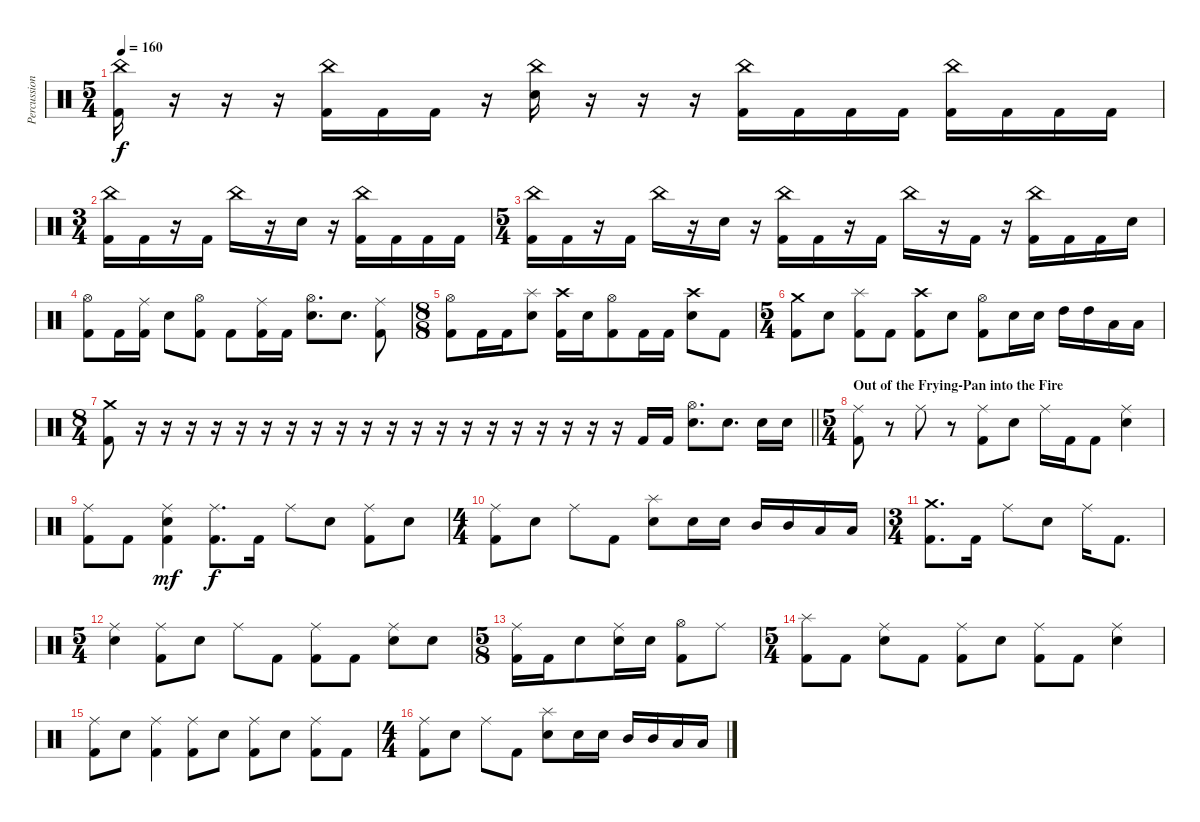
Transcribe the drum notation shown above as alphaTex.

\track ("Percussion" "Percussion") {instrument percussion}
\staff {score}
\articulation defaults
\ts (5 4)
\tempo 160
\clef neutral
\ks c
("China (hit)" "Kick (hit) 2").16{dy f} r.16 r.16 r.16 ("China (hit)" "Kick (hit) 2").16 "Kick (hit) 2".16 "Kick (hit) 2".16 r.16 ("China (hit)" "Electric Snare (hit)").16 r.16 r.16 r.16 ("China (hit)" "Kick (hit) 2").16 "Kick (hit) 2".16 "Kick (hit) 2".16 "Kick (hit) 2".16 ("China (hit)" "Kick (hit) 2").16 "Kick (hit) 2".16 "Kick (hit) 2".16 "Kick (hit) 2".16 |
\ts (3 4)
("China (hit)" "Kick (hit) 2").16 "Kick (hit) 2".16 r.16 "Kick (hit) 2".16 "China (hit)".16 r.16 "Electric Snare (hit)".16 r.16 ("China (hit)" "Kick (hit) 2").16 "Kick (hit) 2".16 "Kick (hit) 2".16 "Kick (hit) 2".16 |
\ts (5 4)
("China (hit)" "Kick (hit) 2").16 "Kick (hit) 2".16 r.16 "Kick (hit) 2".16 "China (hit)".16 r.16 "Electric Snare (hit)".16 r.16 ("China (hit)" "Kick (hit) 2").16 "Kick (hit) 2".16 r.16 "Kick (hit) 2".16 "China (hit)".16 r.16 "Kick (hit) 2".16 r.16 ("China (hit)" "Kick (hit) 2").16 "Kick (hit) 2".16 "Kick (hit) 2".16 "Electric Snare (hit)".16 |
("Hi-Hat (open)" "Kick (hit) 2").8 "Kick (hit) 2".16 ("Ride (middle)" "Kick (hit) 2").16 "Electric Snare (hit)".8 ("Hi-Hat (open)" "Kick (hit) 2").8 "Kick (hit) 2".8 ("Ride (middle)" "Kick (hit) 2").16 "Kick (hit) 2".16 ("Hi-Hat (open)" "Electric Snare (hit)").8{d} "Electric Snare (hit)".8{d} ("Ride (middle)" "Kick (hit) 2").8 |
\ts (8 8)
("Hi-Hat (open)" "Kick (hit) 2").8 "Kick (hit) 2".16 "Kick (hit) 2".16 ("Splash (hit)" "Electric Snare (hit)").8 ("Crash high (hit)" "Kick (hit) 2").16 "Electric Snare (hit)".16 ("Hi-Hat (open)" "Kick (hit) 2").8 "Kick (hit) 2".16 "Kick (hit) 2".16 ("Crash high (hit)" "Electric Snare (hit)").8 "Kick (hit) 2".8 |
\ts (5 4)
("Crash medium (hit)" "Kick (hit) 2").8 "Electric Snare (hit)".8 ("Splash (hit)" "Kick (hit) 2").8 "Kick (hit) 2".8 ("Crash high (hit)" "Kick (hit) 2").8 "Electric Snare (hit)".8 ("Hi-Hat (open)" "Kick (hit) 2").8 "Electric Snare (hit)".16 "Electric Snare (hit)".16 "High Tom (hit)".16 "High Tom (hit)".16 "Low Tom (hit)".16 "Low Tom (hit)".16 |
\ts (8 4)
\barLineRight lightlight
("Crash medium (hit)" "Kick (hit) 2").8 r.16 r.16 r.16 r.16 r.16 r.16 r.16 r.16 r.16 r.16 r.16 r.16 r.16 r.16 r.16 r.16 r.16 r.16 r.16 r.16 "Kick (hit) 2".16 "Kick (hit) 2".16 ("Hi-Hat (open)" "Electric Snare (hit)").8{d} "Electric Snare (hit)".8{d} "Electric Snare (hit)".16 "Electric Snare (hit)".16 |
\ts (5 4)
\section ("" "Out of the Frying-Pan into the Fire")
("Kick (hit) 2" "Ride (middle)").8 r.8 "Ride (middle)".8 r.8 ("Kick (hit) 2" "Ride (middle)").8 "Electric Snare (hit)".8 "Ride (middle)".16 "Kick (hit) 2".16 "Kick (hit) 2".8 ("Electric Snare (hit)" "Ride (middle)").4 |
("Kick (hit) 2" "Ride (middle)").8 "Kick (hit) 2".8 ("Kick (hit) 2" "Electric Snare (hit)" "Ride (middle)").4{dy mf} ("Kick (hit) 2" "Ride (middle)").8{d dy f} "Kick (hit) 2".16 "Ride (middle)".8 "Electric Snare (hit)".8 ("Kick (hit) 2" "Ride (middle)").8 "Electric Snare (hit)".8 |
\ts (4 4)
("Kick (hit) 2" "Ride (middle)").8 "Electric Snare (hit)".8 "Ride (middle)".8 "Kick (hit) 2".8 ("Electric Snare (hit)" "Splash (hit)").8 "Electric Snare (hit)".16 "Electric Snare (hit)".16 "Mid Tom (hit)".16 "Mid Tom (hit)".16 "Low Tom (hit)".16 "Low Tom (hit)".16 |
\ts (3 4)
("Kick (hit) 2" "Crash medium (hit)").8{d} "Kick (hit) 2".16 "Ride (middle)".8 "Electric Snare (hit)".8 "Ride (middle)".16 "Kick (hit) 2".8{d} |
\ts (5 4)
("Electric Snare (hit)" "Ride (middle)").4 ("Kick (hit) 2" "Ride (middle)").8 "Electric Snare (hit)".8 "Ride (middle)".8 "Kick (hit) 2".8 ("Kick (hit) 2" "Ride (middle)").8 "Kick (hit) 2".8 ("Electric Snare (hit)" "Ride (middle)").8 "Electric Snare (hit)".8 |
\ts (5 8)
("Ride (middle)" "Kick (hit) 2").16 "Kick (hit) 2".16 "Electric Snare (hit)".8 ("Ride (middle)" "Electric Snare (hit)").16 "Electric Snare (hit)".16 ("Kick (hit) 2" "Hi-Hat (open)").8 "Ride (middle)".8 |
\ts (5 4)
("Kick (hit) 2" "Splash (hit)").8 "Kick (hit) 2".8 ("Electric Snare (hit)" "Ride (middle)").8 "Kick (hit) 2".8 ("Kick (hit) 2" "Ride (middle)").8 "Electric Snare (hit)".8 ("Kick (hit) 2" "Ride (middle)").8 "Kick (hit) 2".8 ("Electric Snare (hit)" "Ride (middle)").4 |
("Kick (hit) 2" "Ride (middle)").8 "Electric Snare (hit)".8 ("Kick (hit) 2" "Ride (middle)").4 ("Kick (hit) 2" "Ride (middle)").8 "Electric Snare (hit)".8 ("Kick (hit) 2" "Ride (middle)").8 "Electric Snare (hit)".8 ("Kick (hit) 2" "Ride (middle)").8 "Kick (hit) 2".8 |
\ts (4 4)
("Kick (hit) 2" "Ride (middle)").8 "Electric Snare (hit)".8 "Ride (middle)".8 "Kick (hit) 2".8 ("Electric Snare (hit)" "Splash (hit)").8 "Electric Snare (hit)".16 "Electric Snare (hit)".16 "Mid Tom (hit)".16 "Mid Tom (hit)".16 "Low Tom (hit)".16 "Low Tom (hit)".16
